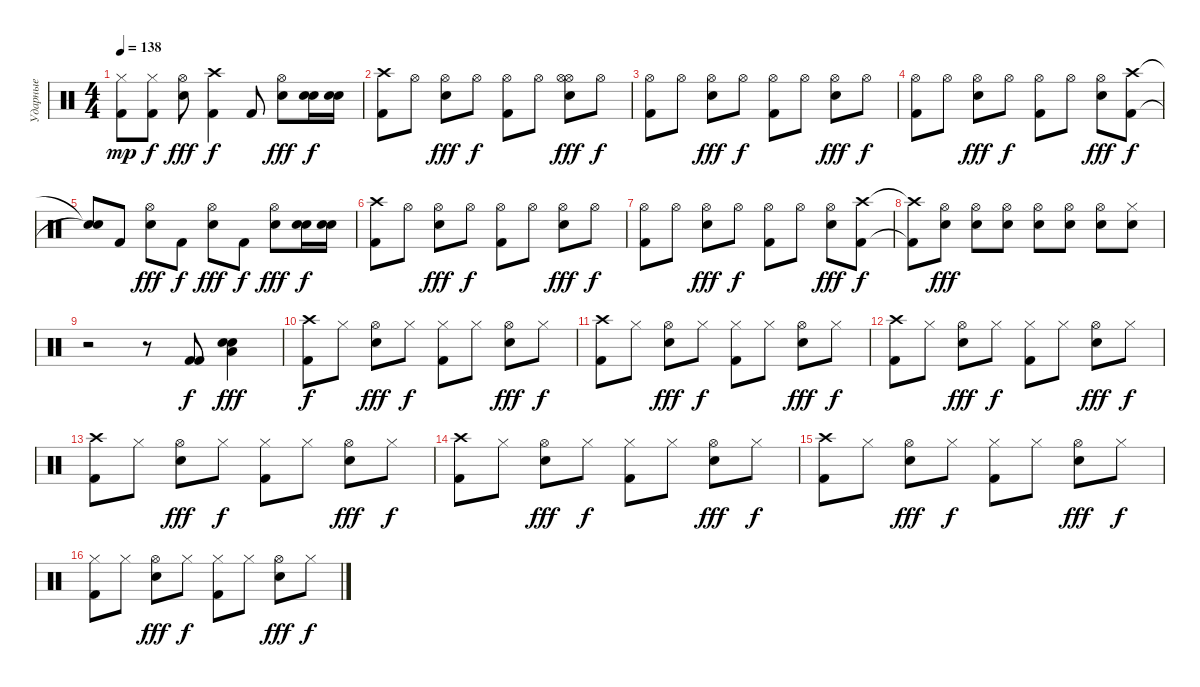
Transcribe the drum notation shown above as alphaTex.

\track ("Ударные" "Ударные") {instrument percussion}
\staff {score}
\articulation defaults
\ts (4 4)
\tempo 138
\clef neutral
\ks c
("Hi-Hat (closed)" "Kick (hit) 2").8{dy mp} ("Hi-Hat (closed)" "Kick (hit) 2").8{dy f} ("Hi-Hat (open)" "Electric Snare (hit)").8{dy fff} ("Crash high (hit)" "Kick (hit) 2").4{dy f} "Kick (hit) 2".8 ("Hi-Hat (open)" "Electric Snare (hit)").8{dy fff} ("Electric Snare (hit)" "Electric Snare (hit)").16{dy f} ("Electric Snare (hit)" "Electric Snare (hit)").16 |
("Crash high (hit)" "Kick (hit) 2").8 "Hi-Hat (open)".8 ("Hi-Hat (open)" "Electric Snare (hit)").8{dy fff} "Hi-Hat (open)".8{dy f} ("Hi-Hat (open)" "Kick (hit) 2").8 "Hi-Hat (open)".8 ("Hi-Hat (open)" "Hi-Hat (open)" "Electric Snare (hit)").8{dy fff} "Hi-Hat (open)".8{dy f} |
("Hi-Hat (open)" "Kick (hit) 2").8 "Hi-Hat (open)".8 ("Hi-Hat (open)" "Electric Snare (hit)").8{dy fff} "Hi-Hat (open)".8{dy f} ("Hi-Hat (open)" "Kick (hit) 2").8 "Hi-Hat (open)".8 ("Hi-Hat (open)" "Electric Snare (hit)").8{dy fff} "Hi-Hat (open)".8{dy f} |
("Hi-Hat (open)" "Kick (hit) 2").8 "Hi-Hat (open)".8 ("Hi-Hat (open)" "Electric Snare (hit)").8{dy fff} "Hi-Hat (open)".8{dy f} ("Hi-Hat (open)" "Kick (hit) 2").8 "Hi-Hat (open)".8 ("Hi-Hat (open)" "Electric Snare (hit)").8{dy fff} ("Crash high (hit)" "Kick (hit) 2").8{dy f} |
("Snare (hit)"{t} "Snare (hit)"{t}).8 "Kick (hit) 2".8 ("Hi-Hat (open)" "Electric Snare (hit)").8{dy fff} "Kick (hit) 2".8{dy f} ("Hi-Hat (open)" "Electric Snare (hit)").8{dy fff} "Kick (hit) 2".8{dy f} ("Hi-Hat (open)" "Electric Snare (hit)").8{dy fff} ("Electric Snare (hit)" "Electric Snare (hit)").16{dy f} ("Electric Snare (hit)" "Electric Snare (hit)").16 |
("Crash high (hit)" "Kick (hit) 2").8 "Hi-Hat (open)".8 ("Hi-Hat (open)" "Electric Snare (hit)").8{dy fff} "Hi-Hat (open)".8{dy f} ("Hi-Hat (open)" "Kick (hit) 2").8 "Hi-Hat (open)".8 ("Hi-Hat (open)" "Electric Snare (hit)").8{dy fff} "Hi-Hat (open)".8{dy f} |
("Hi-Hat (open)" "Kick (hit) 2").8 "Hi-Hat (open)".8 ("Hi-Hat (open)" "Electric Snare (hit)").8{dy fff} "Hi-Hat (open)".8{dy f} ("Hi-Hat (open)" "Kick (hit) 2").8 "Hi-Hat (open)".8 ("Hi-Hat (open)" "Electric Snare (hit)").8{dy fff} ("Crash high (hit)" "Kick (hit) 2").8{dy f} |
("Crash high (hit)"{t} "Kick (hit) 2"{t}).8 ("Hi-Hat (open)" "Electric Snare (hit)").8{dy fff} ("Hi-Hat (open)" "Electric Snare (hit)").8 ("Hi-Hat (open)" "Electric Snare (hit)").8 ("Hi-Hat (open)" "Electric Snare (hit)").8 ("Hi-Hat (open)" "Electric Snare (hit)").8 ("Hi-Hat (open)" "Electric Snare (hit)").8 ("Hi-Hat (closed)" "Electric Snare (hit)").8 |
r.2 r.8 ("Kick (hit) 2" "Kick (hit) 2").8{dy f} ("Electric Snare (hit)" "Electric Snare (hit)" "Low Tom (hit)").4{dy fff} |
("Crash high (hit)" "Kick (hit) 2").8{dy f} "Hi-Hat (closed)".8 ("Hi-Hat (open)" "Electric Snare (hit)").8{dy fff} "Hi-Hat (closed)".8{dy f} ("Hi-Hat (closed)" "Kick (hit) 2").8 "Hi-Hat (closed)".8 ("Hi-Hat (open)" "Electric Snare (hit)").8{dy fff} "Hi-Hat (closed)".8{dy f} |
("Crash high (hit)" "Kick (hit) 2").8 "Hi-Hat (closed)".8 ("Hi-Hat (open)" "Electric Snare (hit)").8{dy fff} "Hi-Hat (closed)".8{dy f} ("Hi-Hat (closed)" "Kick (hit) 2").8 "Hi-Hat (closed)".8 ("Hi-Hat (open)" "Electric Snare (hit)").8{dy fff} "Hi-Hat (closed)".8{dy f} |
("Crash high (hit)" "Kick (hit) 2").8 "Hi-Hat (closed)".8 ("Hi-Hat (open)" "Electric Snare (hit)").8{dy fff} "Hi-Hat (closed)".8{dy f} ("Hi-Hat (closed)" "Kick (hit) 2").8 "Hi-Hat (closed)".8 ("Hi-Hat (open)" "Electric Snare (hit)").8{dy fff} "Hi-Hat (closed)".8{dy f} |
("Crash high (hit)" "Kick (hit) 2").8 "Hi-Hat (closed)".8 ("Hi-Hat (open)" "Electric Snare (hit)").8{dy fff} "Hi-Hat (closed)".8{dy f} ("Hi-Hat (closed)" "Kick (hit) 2").8 "Hi-Hat (closed)".8 ("Hi-Hat (open)" "Electric Snare (hit)").8{dy fff} "Hi-Hat (closed)".8{dy f} |
("Crash high (hit)" "Kick (hit) 2").8 "Hi-Hat (closed)".8 ("Hi-Hat (open)" "Electric Snare (hit)").8{dy fff} "Hi-Hat (closed)".8{dy f} ("Hi-Hat (closed)" "Kick (hit) 2").8 "Hi-Hat (closed)".8 ("Hi-Hat (open)" "Electric Snare (hit)").8{dy fff} "Hi-Hat (closed)".8{dy f} |
("Crash high (hit)" "Kick (hit) 2").8 "Hi-Hat (closed)".8 ("Hi-Hat (open)" "Electric Snare (hit)").8{dy fff} "Hi-Hat (closed)".8{dy f} ("Hi-Hat (closed)" "Kick (hit) 2").8 "Hi-Hat (closed)".8 ("Hi-Hat (open)" "Electric Snare (hit)").8{dy fff} "Hi-Hat (closed)".8{dy f} |
("Hi-Hat (closed)" "Kick (hit) 2").8 "Hi-Hat (closed)".8 ("Hi-Hat (open)" "Electric Snare (hit)").8{dy fff} "Hi-Hat (closed)".8{dy f} ("Hi-Hat (closed)" "Kick (hit) 2").8 "Hi-Hat (closed)".8 ("Hi-Hat (open)" "Electric Snare (hit)").8{dy fff} "Hi-Hat (closed)".8{dy f}
